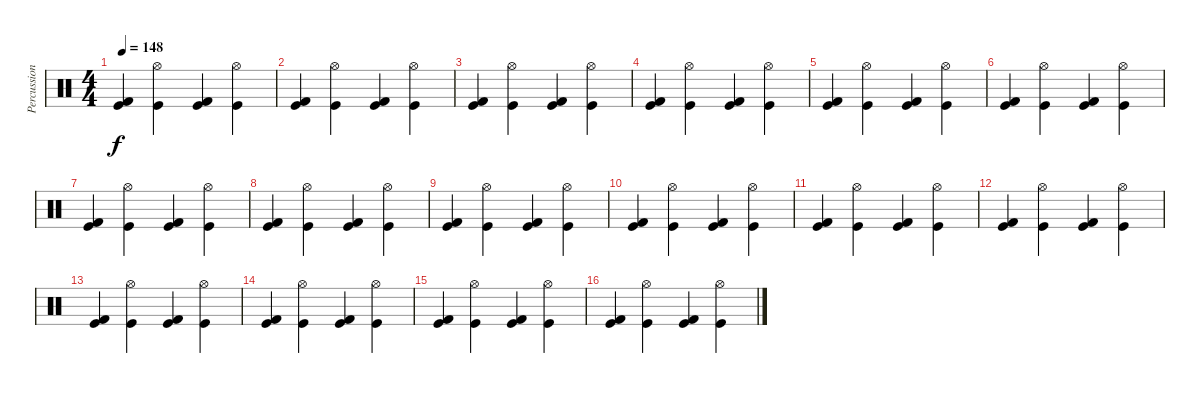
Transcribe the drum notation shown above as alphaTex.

\track ("Percussion" "Percussion") {instrument percussion}
\staff {score}
\articulation defaults
\ts (4 4)
\tempo 148
\clef neutral
\ks c
("Kick (hit) 2" "Kick (hit)").4{dy f} ("Hi-Hat (open)" "Kick (hit)").4 ("Kick (hit) 2" "Kick (hit)").4 ("Hi-Hat (open)" "Kick (hit)").4 |
("Kick (hit) 2" "Kick (hit)").4 ("Hi-Hat (open)" "Kick (hit)").4 ("Kick (hit) 2" "Kick (hit)").4 ("Hi-Hat (open)" "Kick (hit)").4 |
("Kick (hit) 2" "Kick (hit)").4 ("Hi-Hat (open)" "Kick (hit)").4 ("Kick (hit) 2" "Kick (hit)").4 ("Hi-Hat (open)" "Kick (hit)").4 |
("Kick (hit) 2" "Kick (hit)").4 ("Hi-Hat (open)" "Kick (hit)").4 ("Kick (hit) 2" "Kick (hit)").4 ("Hi-Hat (open)" "Kick (hit)").4 |
("Kick (hit) 2" "Kick (hit)").4 ("Hi-Hat (open)" "Kick (hit)").4 ("Kick (hit) 2" "Kick (hit)").4 ("Hi-Hat (open)" "Kick (hit)").4 |
("Kick (hit) 2" "Kick (hit)").4 ("Hi-Hat (open)" "Kick (hit)").4 ("Kick (hit) 2" "Kick (hit)").4 ("Hi-Hat (open)" "Kick (hit)").4 |
("Kick (hit) 2" "Kick (hit)").4 ("Hi-Hat (open)" "Kick (hit)").4 ("Kick (hit) 2" "Kick (hit)").4 ("Hi-Hat (open)" "Kick (hit)").4 |
("Kick (hit) 2" "Kick (hit)").4 ("Hi-Hat (open)" "Kick (hit)").4 ("Kick (hit) 2" "Kick (hit)").4 ("Hi-Hat (open)" "Kick (hit)").4 |
("Kick (hit) 2" "Kick (hit)").4 ("Hi-Hat (open)" "Kick (hit)").4 ("Kick (hit) 2" "Kick (hit)").4 ("Hi-Hat (open)" "Kick (hit)").4 |
("Kick (hit) 2" "Kick (hit)").4 ("Hi-Hat (open)" "Kick (hit)").4 ("Kick (hit) 2" "Kick (hit)").4 ("Hi-Hat (open)" "Kick (hit)").4 |
("Kick (hit) 2" "Kick (hit)").4 ("Hi-Hat (open)" "Kick (hit)").4 ("Kick (hit) 2" "Kick (hit)").4 ("Hi-Hat (open)" "Kick (hit)").4 |
("Kick (hit) 2" "Kick (hit)").4 ("Hi-Hat (open)" "Kick (hit)").4 ("Kick (hit) 2" "Kick (hit)").4 ("Hi-Hat (open)" "Kick (hit)").4 |
("Kick (hit) 2" "Kick (hit)").4 ("Hi-Hat (open)" "Kick (hit)").4 ("Kick (hit) 2" "Kick (hit)").4 ("Hi-Hat (open)" "Kick (hit)").4 |
("Kick (hit) 2" "Kick (hit)").4 ("Hi-Hat (open)" "Kick (hit)").4 ("Kick (hit) 2" "Kick (hit)").4 ("Hi-Hat (open)" "Kick (hit)").4 |
("Kick (hit) 2" "Kick (hit)").4 ("Hi-Hat (open)" "Kick (hit)").4 ("Kick (hit) 2" "Kick (hit)").4 ("Hi-Hat (open)" "Kick (hit)").4 |
("Kick (hit) 2" "Kick (hit)").4 ("Hi-Hat (open)" "Kick (hit)").4 ("Kick (hit) 2" "Kick (hit)").4 ("Hi-Hat (open)" "Kick (hit)").4
